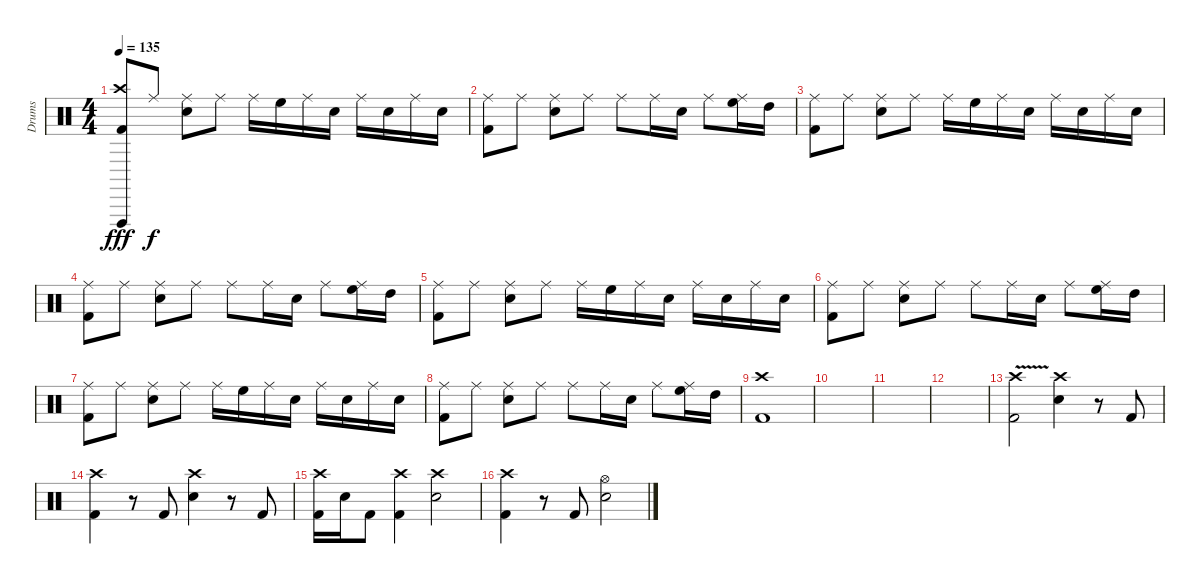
\track ("Drums" "Drums") {instrument percussion}
\staff {score}
\articulation defaults
\ts (4 4)
\tempo 135
\clef neutral
\ks c
("Vibraslap (hit)" "Crash high (hit)" "Kick (hit) 2").8{dy fff} "Ride (middle)".8{dy f} ("Ride (middle)" "Electric Snare (hit)").8 "Ride (middle)".8 "Ride (middle)".16 "High Floor Tom (hit)".16 "Ride (middle)".16 "Electric Snare (hit)".16 "Ride (middle)".16 "Electric Snare (hit)".16 "Ride (middle)".16 "Electric Snare (hit)".16 |
("Ride (middle)" "Kick (hit) 2").8 "Ride (middle)".8 ("Ride (middle)" "Electric Snare (hit)").8 "Ride (middle)".8 "Ride (middle)".8 "Ride (middle)".16 "Electric Snare (hit)".16 "Ride (middle)".8 ("Ride (middle)" "High Floor Tom (hit)").16 "High Tom (hit)".16 |
("Ride (middle)" "Kick (hit) 2").8 "Ride (middle)".8 ("Ride (middle)" "Electric Snare (hit)").8 "Ride (middle)".8 "Ride (middle)".16 "High Floor Tom (hit)".16 "Ride (middle)".16 "Electric Snare (hit)".16 "Ride (middle)".16 "Electric Snare (hit)".16 "Ride (middle)".16 "Electric Snare (hit)".16 |
("Ride (middle)" "Kick (hit) 2").8 "Ride (middle)".8 ("Ride (middle)" "Electric Snare (hit)").8 "Ride (middle)".8 "Ride (middle)".8 "Ride (middle)".16 "Electric Snare (hit)".16 "Ride (middle)".8 ("Ride (middle)" "High Floor Tom (hit)").16 "High Tom (hit)".16 |
("Ride (middle)" "Kick (hit) 2").8 "Ride (middle)".8 ("Ride (middle)" "Electric Snare (hit)").8 "Ride (middle)".8 "Ride (middle)".16 "High Floor Tom (hit)".16 "Ride (middle)".16 "Electric Snare (hit)".16 "Ride (middle)".16 "Electric Snare (hit)".16 "Ride (middle)".16 "Electric Snare (hit)".16 |
("Ride (middle)" "Kick (hit) 2").8 "Ride (middle)".8 ("Ride (middle)" "Electric Snare (hit)").8 "Ride (middle)".8 "Ride (middle)".8 "Ride (middle)".16 "Electric Snare (hit)".16 "Ride (middle)".8 ("Ride (middle)" "High Floor Tom (hit)").16 "High Tom (hit)".16 |
("Ride (middle)" "Kick (hit) 2").8 "Ride (middle)".8 ("Ride (middle)" "Electric Snare (hit)").8 "Ride (middle)".8 "Ride (middle)".16 "High Floor Tom (hit)".16 "Ride (middle)".16 "Electric Snare (hit)".16 "Ride (middle)".16 "Electric Snare (hit)".16 "Ride (middle)".16 "Electric Snare (hit)".16 |
("Ride (middle)" "Kick (hit) 2").8 "Ride (middle)".8 ("Ride (middle)" "Electric Snare (hit)").8 "Ride (middle)".8 "Ride (middle)".8 "Ride (middle)".16 "Electric Snare (hit)".16 "Ride (middle)".8 ("Ride (middle)" "High Floor Tom (hit)").16 "High Tom (hit)".16 |
("Crash high (hit)" "Kick (hit) 2").1 |
|
|
|
("Crash high (hit)" "Kick (hit) 2"{v}).2 ("Crash high (hit)" "Electric Snare (hit)").4 r.8 "Kick (hit) 2".8 |
("Crash high (hit)" "Kick (hit) 2").4 r.8 "Kick (hit) 2".8 ("Crash high (hit)" "Electric Snare (hit)").4 r.8 "Kick (hit) 2".8 |
("Crash high (hit)" "Kick (hit) 2").16 "Electric Snare (hit)".16 "Kick (hit) 2".8 ("Crash high (hit)" "Kick (hit) 2").4 ("Crash high (hit)" "Electric Snare (hit)").2 |
("Crash high (hit)" "Kick (hit) 2").4 r.8 "Kick (hit) 2".8 ("Hi-Hat (open)" "Electric Snare (hit)").2
